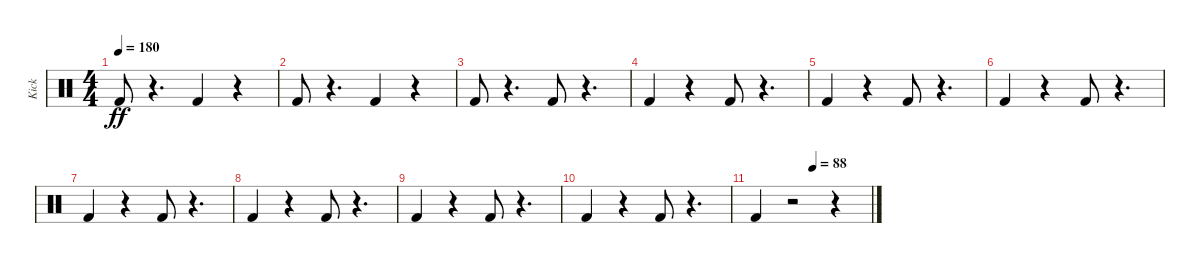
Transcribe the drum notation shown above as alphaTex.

\track ("Kick" "Kick") {instrument percussion}
\staff {score}
\articulation defaults
\ts (4 4)
\tempo 180
\clef neutral
\ks c "Kick (hit) 2".8{dy ff}
r.4{d} "Kick (hit) 2".4 r.4 |
"Kick (hit) 2".8 r.4{d} "Kick (hit) 2".4 r.4 |
"Kick (hit) 2".8 r.4{d} "Kick (hit) 2".8 r.4{d} |
"Kick (hit) 2".4 r.4 "Kick (hit) 2".8 r.4{d} |
"Kick (hit) 2".4 r.4 "Kick (hit) 2".8 r.4{d} |
"Kick (hit) 2".4 r.4 "Kick (hit) 2".8 r.4{d} |
"Kick (hit) 2".4 r.4 "Kick (hit) 2".8 r.4{d} |
"Kick (hit) 2".4 r.4 "Kick (hit) 2".8 r.4{d} |
"Kick (hit) 2".4 r.4 "Kick (hit) 2".8 r.4{d} |
"Kick (hit) 2".4 r.4 "Kick (hit) 2".8 r.4{d} |
\tempo (88 0.5)
"Kick (hit) 2".4 r.2 r.4
